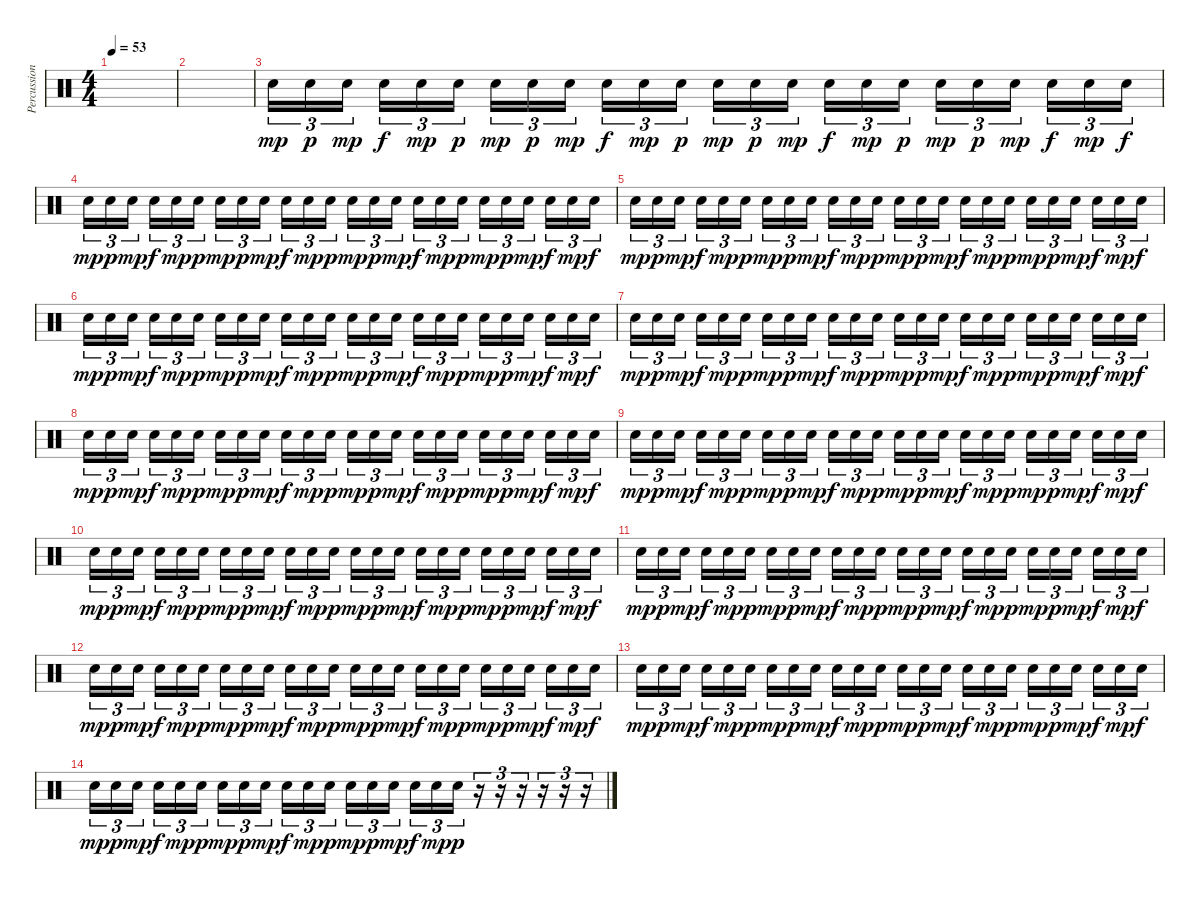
\track ("Percussions" "Percussion") {instrument percussion}
\staff {score}
\articulation defaults
\ts (4 4)
\tempo 53
\clef neutral
\ks c
|
|
"Snare (hit) 2".16{tu (3 2) dy mp} "Snare (hit) 2".16{tu (3 2) dy p} "Snare (hit) 2".16{tu (3 2) dy mp} "Snare (hit) 2".16{tu (3 2) dy f} "Snare (hit) 2".16{tu (3 2) dy mp} "Snare (hit) 2".16{tu (3 2) dy p} "Snare (hit) 2".16{tu (3 2) dy mp} "Snare (hit) 2".16{tu (3 2) dy p} "Snare (hit) 2".16{tu (3 2) dy mp} "Snare (hit) 2".16{tu (3 2) dy f} "Snare (hit) 2".16{tu (3 2) dy mp} "Snare (hit) 2".16{tu (3 2) dy p} "Snare (hit) 2".16{tu (3 2) dy mp} "Snare (hit) 2".16{tu (3 2) dy p} "Snare (hit) 2".16{tu (3 2) dy mp} "Snare (hit) 2".16{tu (3 2) dy f} "Snare (hit) 2".16{tu (3 2) dy mp} "Snare (hit) 2".16{tu (3 2) dy p} "Snare (hit) 2".16{tu (3 2) dy mp} "Snare (hit) 2".16{tu (3 2) dy p} "Snare (hit) 2".16{tu (3 2) dy mp} "Snare (hit) 2".16{tu (3 2) dy f} "Snare (hit) 2".16{tu (3 2) dy mp} "Snare (hit) 2".16{tu (3 2) dy f} |
"Snare (hit) 2".16{tu (3 2) dy mp} "Snare (hit) 2".16{tu (3 2) dy p} "Snare (hit) 2".16{tu (3 2) dy mp} "Snare (hit) 2".16{tu (3 2) dy f} "Snare (hit) 2".16{tu (3 2) dy mp} "Snare (hit) 2".16{tu (3 2) dy p} "Snare (hit) 2".16{tu (3 2) dy mp} "Snare (hit) 2".16{tu (3 2) dy p} "Snare (hit) 2".16{tu (3 2) dy mp} "Snare (hit) 2".16{tu (3 2) dy f} "Snare (hit) 2".16{tu (3 2) dy mp} "Snare (hit) 2".16{tu (3 2) dy p} "Snare (hit) 2".16{tu (3 2) dy mp} "Snare (hit) 2".16{tu (3 2) dy p} "Snare (hit) 2".16{tu (3 2) dy mp} "Snare (hit) 2".16{tu (3 2) dy f} "Snare (hit) 2".16{tu (3 2) dy mp} "Snare (hit) 2".16{tu (3 2) dy p} "Snare (hit) 2".16{tu (3 2) dy mp} "Snare (hit) 2".16{tu (3 2) dy p} "Snare (hit) 2".16{tu (3 2) dy mp} "Snare (hit) 2".16{tu (3 2) dy f} "Snare (hit) 2".16{tu (3 2) dy mp} "Snare (hit) 2".16{tu (3 2) dy f} |
"Snare (hit) 2".16{tu (3 2) dy mp} "Snare (hit) 2".16{tu (3 2) dy p} "Snare (hit) 2".16{tu (3 2) dy mp} "Snare (hit) 2".16{tu (3 2) dy f} "Snare (hit) 2".16{tu (3 2) dy mp} "Snare (hit) 2".16{tu (3 2) dy p} "Snare (hit) 2".16{tu (3 2) dy mp} "Snare (hit) 2".16{tu (3 2) dy p} "Snare (hit) 2".16{tu (3 2) dy mp} "Snare (hit) 2".16{tu (3 2) dy f} "Snare (hit) 2".16{tu (3 2) dy mp} "Snare (hit) 2".16{tu (3 2) dy p} "Snare (hit) 2".16{tu (3 2) dy mp} "Snare (hit) 2".16{tu (3 2) dy p} "Snare (hit) 2".16{tu (3 2) dy mp} "Snare (hit) 2".16{tu (3 2) dy f} "Snare (hit) 2".16{tu (3 2) dy mp} "Snare (hit) 2".16{tu (3 2) dy p} "Snare (hit) 2".16{tu (3 2) dy mp} "Snare (hit) 2".16{tu (3 2) dy p} "Snare (hit) 2".16{tu (3 2) dy mp} "Snare (hit) 2".16{tu (3 2) dy f} "Snare (hit) 2".16{tu (3 2) dy mp} "Snare (hit) 2".16{tu (3 2) dy f} |
"Snare (hit) 2".16{tu (3 2) dy mp} "Snare (hit) 2".16{tu (3 2) dy p} "Snare (hit) 2".16{tu (3 2) dy mp} "Snare (hit) 2".16{tu (3 2) dy f} "Snare (hit) 2".16{tu (3 2) dy mp} "Snare (hit) 2".16{tu (3 2) dy p} "Snare (hit) 2".16{tu (3 2) dy mp} "Snare (hit) 2".16{tu (3 2) dy p} "Snare (hit) 2".16{tu (3 2) dy mp} "Snare (hit) 2".16{tu (3 2) dy f} "Snare (hit) 2".16{tu (3 2) dy mp} "Snare (hit) 2".16{tu (3 2) dy p} "Snare (hit) 2".16{tu (3 2) dy mp} "Snare (hit) 2".16{tu (3 2) dy p} "Snare (hit) 2".16{tu (3 2) dy mp} "Snare (hit) 2".16{tu (3 2) dy f} "Snare (hit) 2".16{tu (3 2) dy mp} "Snare (hit) 2".16{tu (3 2) dy p} "Snare (hit) 2".16{tu (3 2) dy mp} "Snare (hit) 2".16{tu (3 2) dy p} "Snare (hit) 2".16{tu (3 2) dy mp} "Snare (hit) 2".16{tu (3 2) dy f} "Snare (hit) 2".16{tu (3 2) dy mp} "Snare (hit) 2".16{tu (3 2) dy f} |
"Snare (hit) 2".16{tu (3 2) dy mp} "Snare (hit) 2".16{tu (3 2) dy p} "Snare (hit) 2".16{tu (3 2) dy mp} "Snare (hit) 2".16{tu (3 2) dy f} "Snare (hit) 2".16{tu (3 2) dy mp} "Snare (hit) 2".16{tu (3 2) dy p} "Snare (hit) 2".16{tu (3 2) dy mp} "Snare (hit) 2".16{tu (3 2) dy p} "Snare (hit) 2".16{tu (3 2) dy mp} "Snare (hit) 2".16{tu (3 2) dy f} "Snare (hit) 2".16{tu (3 2) dy mp} "Snare (hit) 2".16{tu (3 2) dy p} "Snare (hit) 2".16{tu (3 2) dy mp} "Snare (hit) 2".16{tu (3 2) dy p} "Snare (hit) 2".16{tu (3 2) dy mp} "Snare (hit) 2".16{tu (3 2) dy f} "Snare (hit) 2".16{tu (3 2) dy mp} "Snare (hit) 2".16{tu (3 2) dy p} "Snare (hit) 2".16{tu (3 2) dy mp} "Snare (hit) 2".16{tu (3 2) dy p} "Snare (hit) 2".16{tu (3 2) dy mp} "Snare (hit) 2".16{tu (3 2) dy f} "Snare (hit) 2".16{tu (3 2) dy mp} "Snare (hit) 2".16{tu (3 2) dy f} |
"Snare (hit) 2".16{tu (3 2) dy mp} "Snare (hit) 2".16{tu (3 2) dy p} "Snare (hit) 2".16{tu (3 2) dy mp} "Snare (hit) 2".16{tu (3 2) dy f} "Snare (hit) 2".16{tu (3 2) dy mp} "Snare (hit) 2".16{tu (3 2) dy p} "Snare (hit) 2".16{tu (3 2) dy mp} "Snare (hit) 2".16{tu (3 2) dy p} "Snare (hit) 2".16{tu (3 2) dy mp} "Snare (hit) 2".16{tu (3 2) dy f} "Snare (hit) 2".16{tu (3 2) dy mp} "Snare (hit) 2".16{tu (3 2) dy p} "Snare (hit) 2".16{tu (3 2) dy mp} "Snare (hit) 2".16{tu (3 2) dy p} "Snare (hit) 2".16{tu (3 2) dy mp} "Snare (hit) 2".16{tu (3 2) dy f} "Snare (hit) 2".16{tu (3 2) dy mp} "Snare (hit) 2".16{tu (3 2) dy p} "Snare (hit) 2".16{tu (3 2) dy mp} "Snare (hit) 2".16{tu (3 2) dy p} "Snare (hit) 2".16{tu (3 2) dy mp} "Snare (hit) 2".16{tu (3 2) dy f} "Snare (hit) 2".16{tu (3 2) dy mp} "Snare (hit) 2".16{tu (3 2) dy f} |
"Snare (hit) 2".16{tu (3 2) dy mp} "Snare (hit) 2".16{tu (3 2) dy p} "Snare (hit) 2".16{tu (3 2) dy mp} "Snare (hit) 2".16{tu (3 2) dy f} "Snare (hit) 2".16{tu (3 2) dy mp} "Snare (hit) 2".16{tu (3 2) dy p} "Snare (hit) 2".16{tu (3 2) dy mp} "Snare (hit) 2".16{tu (3 2) dy p} "Snare (hit) 2".16{tu (3 2) dy mp} "Snare (hit) 2".16{tu (3 2) dy f} "Snare (hit) 2".16{tu (3 2) dy mp} "Snare (hit) 2".16{tu (3 2) dy p} "Snare (hit) 2".16{tu (3 2) dy mp} "Snare (hit) 2".16{tu (3 2) dy p} "Snare (hit) 2".16{tu (3 2) dy mp} "Snare (hit) 2".16{tu (3 2) dy f} "Snare (hit) 2".16{tu (3 2) dy mp} "Snare (hit) 2".16{tu (3 2) dy p} "Snare (hit) 2".16{tu (3 2) dy mp} "Snare (hit) 2".16{tu (3 2) dy p} "Snare (hit) 2".16{tu (3 2) dy mp} "Snare (hit) 2".16{tu (3 2) dy f} "Snare (hit) 2".16{tu (3 2) dy mp} "Snare (hit) 2".16{tu (3 2) dy f} |
"Snare (hit) 2".16{tu (3 2) dy mp} "Snare (hit) 2".16{tu (3 2) dy p} "Snare (hit) 2".16{tu (3 2) dy mp} "Snare (hit) 2".16{tu (3 2) dy f} "Snare (hit) 2".16{tu (3 2) dy mp} "Snare (hit) 2".16{tu (3 2) dy p} "Snare (hit) 2".16{tu (3 2) dy mp} "Snare (hit) 2".16{tu (3 2) dy p} "Snare (hit) 2".16{tu (3 2) dy mp} "Snare (hit) 2".16{tu (3 2) dy f} "Snare (hit) 2".16{tu (3 2) dy mp} "Snare (hit) 2".16{tu (3 2) dy p} "Snare (hit) 2".16{tu (3 2) dy mp} "Snare (hit) 2".16{tu (3 2) dy p} "Snare (hit) 2".16{tu (3 2) dy mp} "Snare (hit) 2".16{tu (3 2) dy f} "Snare (hit) 2".16{tu (3 2) dy mp} "Snare (hit) 2".16{tu (3 2) dy p} "Snare (hit) 2".16{tu (3 2) dy mp} "Snare (hit) 2".16{tu (3 2) dy p} "Snare (hit) 2".16{tu (3 2) dy mp} "Snare (hit) 2".16{tu (3 2) dy f} "Snare (hit) 2".16{tu (3 2) dy mp} "Snare (hit) 2".16{tu (3 2) dy f} |
"Snare (hit) 2".16{tu (3 2) dy mp} "Snare (hit) 2".16{tu (3 2) dy p} "Snare (hit) 2".16{tu (3 2) dy mp} "Snare (hit) 2".16{tu (3 2) dy f} "Snare (hit) 2".16{tu (3 2) dy mp} "Snare (hit) 2".16{tu (3 2) dy p} "Snare (hit) 2".16{tu (3 2) dy mp} "Snare (hit) 2".16{tu (3 2) dy p} "Snare (hit) 2".16{tu (3 2) dy mp} "Snare (hit) 2".16{tu (3 2) dy f} "Snare (hit) 2".16{tu (3 2) dy mp} "Snare (hit) 2".16{tu (3 2) dy p} "Snare (hit) 2".16{tu (3 2) dy mp} "Snare (hit) 2".16{tu (3 2) dy p} "Snare (hit) 2".16{tu (3 2) dy mp} "Snare (hit) 2".16{tu (3 2) dy f} "Snare (hit) 2".16{tu (3 2) dy mp} "Snare (hit) 2".16{tu (3 2) dy p} "Snare (hit) 2".16{tu (3 2) dy mp} "Snare (hit) 2".16{tu (3 2) dy p} "Snare (hit) 2".16{tu (3 2) dy mp} "Snare (hit) 2".16{tu (3 2) dy f} "Snare (hit) 2".16{tu (3 2) dy mp} "Snare (hit) 2".16{tu (3 2) dy f} |
"Snare (hit) 2".16{tu (3 2) dy mp} "Snare (hit) 2".16{tu (3 2) dy p} "Snare (hit) 2".16{tu (3 2) dy mp} "Snare (hit) 2".16{tu (3 2) dy f} "Snare (hit) 2".16{tu (3 2) dy mp} "Snare (hit) 2".16{tu (3 2) dy p} "Snare (hit) 2".16{tu (3 2) dy mp} "Snare (hit) 2".16{tu (3 2) dy p} "Snare (hit) 2".16{tu (3 2) dy mp} "Snare (hit) 2".16{tu (3 2) dy f} "Snare (hit) 2".16{tu (3 2) dy mp} "Snare (hit) 2".16{tu (3 2) dy p} "Snare (hit) 2".16{tu (3 2) dy mp} "Snare (hit) 2".16{tu (3 2) dy p} "Snare (hit) 2".16{tu (3 2) dy mp} "Snare (hit) 2".16{tu (3 2) dy f} "Snare (hit) 2".16{tu (3 2) dy mp} "Snare (hit) 2".16{tu (3 2) dy p} "Snare (hit) 2".16{tu (3 2) dy mp} "Snare (hit) 2".16{tu (3 2) dy p} "Snare (hit) 2".16{tu (3 2) dy mp} "Snare (hit) 2".16{tu (3 2) dy f} "Snare (hit) 2".16{tu (3 2) dy mp} "Snare (hit) 2".16{tu (3 2) dy f} |
"Snare (hit) 2".16{tu (3 2) dy mp} "Snare (hit) 2".16{tu (3 2) dy p} "Snare (hit) 2".16{tu (3 2) dy mp} "Snare (hit) 2".16{tu (3 2) dy f} "Snare (hit) 2".16{tu (3 2) dy mp} "Snare (hit) 2".16{tu (3 2) dy p} "Snare (hit) 2".16{tu (3 2) dy mp} "Snare (hit) 2".16{tu (3 2) dy p} "Snare (hit) 2".16{tu (3 2) dy mp} "Snare (hit) 2".16{tu (3 2) dy f} "Snare (hit) 2".16{tu (3 2) dy mp} "Snare (hit) 2".16{tu (3 2) dy p} "Snare (hit) 2".16{tu (3 2) dy mp} "Snare (hit) 2".16{tu (3 2) dy p} "Snare (hit) 2".16{tu (3 2) dy mp} "Snare (hit) 2".16{tu (3 2) dy f} "Snare (hit) 2".16{tu (3 2) dy mp} "Snare (hit) 2".16{tu (3 2) dy p} "Snare (hit) 2".16{tu (3 2) dy mp} "Snare (hit) 2".16{tu (3 2) dy p} "Snare (hit) 2".16{tu (3 2) dy mp} "Snare (hit) 2".16{tu (3 2) dy f} "Snare (hit) 2".16{tu (3 2) dy mp} "Snare (hit) 2".16{tu (3 2) dy f} |
"Snare (hit) 2".16{tu (3 2) dy mp} "Snare (hit) 2".16{tu (3 2) dy p} "Snare (hit) 2".16{tu (3 2) dy mp} "Snare (hit) 2".16{tu (3 2) dy f} "Snare (hit) 2".16{tu (3 2) dy mp} "Snare (hit) 2".16{tu (3 2) dy p} "Snare (hit) 2".16{tu (3 2) dy mp} "Snare (hit) 2".16{tu (3 2) dy p} "Snare (hit) 2".16{tu (3 2) dy mp} "Snare (hit) 2".16{tu (3 2) dy f} "Snare (hit) 2".16{tu (3 2) dy mp} "Snare (hit) 2".16{tu (3 2) dy p} "Snare (hit) 2".16{tu (3 2) dy mp} "Snare (hit) 2".16{tu (3 2) dy p} "Snare (hit) 2".16{tu (3 2) dy mp} "Snare (hit) 2".16{tu (3 2) dy f} "Snare (hit) 2".16{tu (3 2) dy mp} "Snare (hit) 2".16{tu (3 2) dy p} r.16{tu (3 2)} r.16{tu (3 2)} r.16{tu (3 2)} r.16{tu (3 2)} r.16{tu (3 2)} r.16{tu (3 2)}
